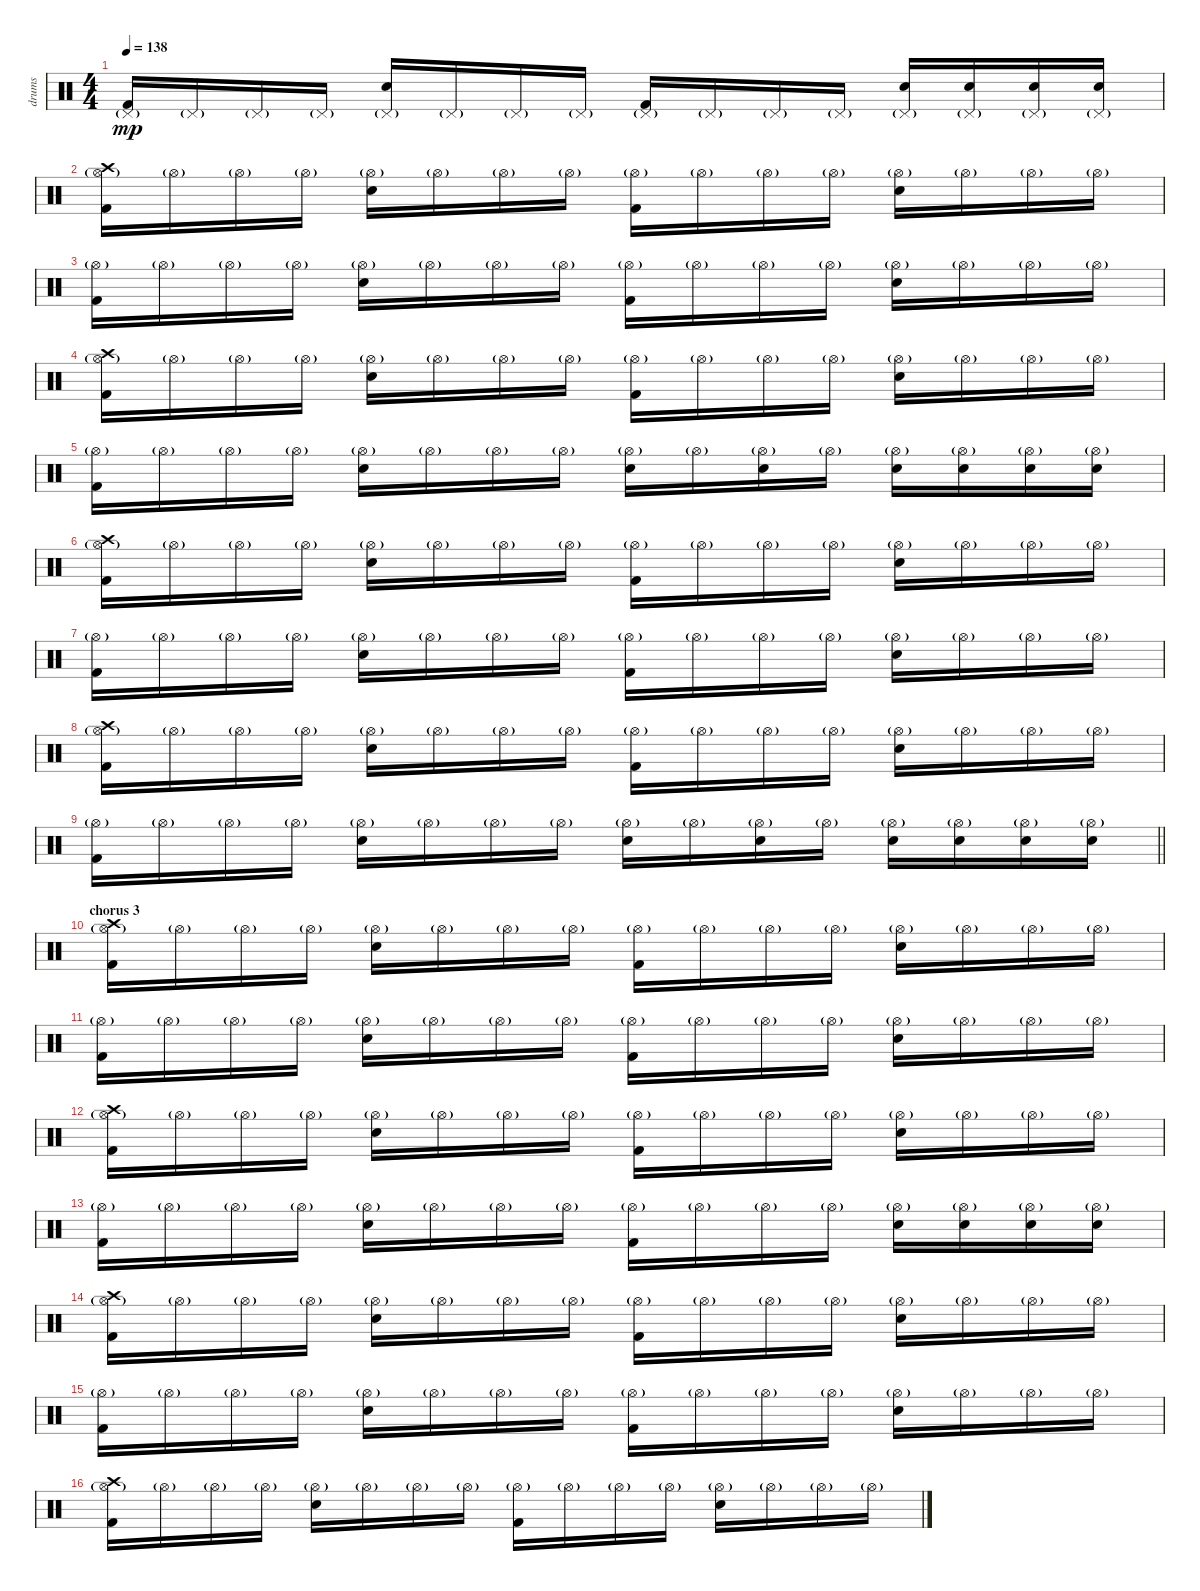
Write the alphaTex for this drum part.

\track ("drums" "drums") {instrument percussion}
\staff {score}
\articulation defaults
\ts (4 4)
\tempo 138
\clef neutral
\ks c
("Kick (hit) 2" "Pedal Hi-Hat (hit)"{g}).16{dy mp} "Pedal Hi-Hat (hit)"{g}.16 "Pedal Hi-Hat (hit)"{g}.16 "Pedal Hi-Hat (hit)"{g}.16 ("Electric Snare (hit)" "Pedal Hi-Hat (hit)"{g}).16 "Pedal Hi-Hat (hit)"{g}.16 "Pedal Hi-Hat (hit)"{g}.16 "Pedal Hi-Hat (hit)"{g}.16 ("Kick (hit) 2" "Pedal Hi-Hat (hit)"{g}).16 "Pedal Hi-Hat (hit)"{g}.16 "Pedal Hi-Hat (hit)"{g}.16 "Pedal Hi-Hat (hit)"{g}.16 ("Electric Snare (hit)" "Pedal Hi-Hat (hit)"{g}).16 ("Electric Snare (hit)" "Pedal Hi-Hat (hit)"{g}).16 ("Electric Snare (hit)" "Pedal Hi-Hat (hit)"{g}).16 ("Electric Snare (hit)" "Pedal Hi-Hat (hit)"{g}).16 |
("Kick (hit) 2" "Hi-Hat (open)"{g} "Crash high (hit)").16 "Hi-Hat (open)"{g}.16 "Hi-Hat (open)"{g}.16 "Hi-Hat (open)"{g}.16 ("Electric Snare (hit)" "Hi-Hat (open)"{g}).16 "Hi-Hat (open)"{g}.16 "Hi-Hat (open)"{g}.16 "Hi-Hat (open)"{g}.16 ("Kick (hit) 2" "Hi-Hat (open)"{g}).16 "Hi-Hat (open)"{g}.16 "Hi-Hat (open)"{g}.16 "Hi-Hat (open)"{g}.16 ("Electric Snare (hit)" "Hi-Hat (open)"{g}).16 "Hi-Hat (open)"{g}.16 "Hi-Hat (open)"{g}.16 "Hi-Hat (open)"{g}.16 |
("Kick (hit) 2" "Hi-Hat (open)"{g}).16 "Hi-Hat (open)"{g}.16 "Hi-Hat (open)"{g}.16 "Hi-Hat (open)"{g}.16 ("Electric Snare (hit)" "Hi-Hat (open)"{g}).16 "Hi-Hat (open)"{g}.16 "Hi-Hat (open)"{g}.16 "Hi-Hat (open)"{g}.16 ("Kick (hit) 2" "Hi-Hat (open)"{g}).16 "Hi-Hat (open)"{g}.16 "Hi-Hat (open)"{g}.16 "Hi-Hat (open)"{g}.16 ("Electric Snare (hit)" "Hi-Hat (open)"{g}).16 "Hi-Hat (open)"{g}.16 "Hi-Hat (open)"{g}.16 "Hi-Hat (open)"{g}.16 |
("Kick (hit) 2" "Hi-Hat (open)"{g} "Crash high (hit)").16 "Hi-Hat (open)"{g}.16 "Hi-Hat (open)"{g}.16 "Hi-Hat (open)"{g}.16 ("Electric Snare (hit)" "Hi-Hat (open)"{g}).16 "Hi-Hat (open)"{g}.16 "Hi-Hat (open)"{g}.16 "Hi-Hat (open)"{g}.16 ("Kick (hit) 2" "Hi-Hat (open)"{g}).16 "Hi-Hat (open)"{g}.16 "Hi-Hat (open)"{g}.16 "Hi-Hat (open)"{g}.16 ("Electric Snare (hit)" "Hi-Hat (open)"{g}).16 "Hi-Hat (open)"{g}.16 "Hi-Hat (open)"{g}.16 "Hi-Hat (open)"{g}.16 |
("Kick (hit) 2" "Hi-Hat (open)"{g}).16 "Hi-Hat (open)"{g}.16 "Hi-Hat (open)"{g}.16 "Hi-Hat (open)"{g}.16 ("Electric Snare (hit)" "Hi-Hat (open)"{g}).16 "Hi-Hat (open)"{g}.16 "Hi-Hat (open)"{g}.16 "Hi-Hat (open)"{g}.16 ("Electric Snare (hit)" "Hi-Hat (open)"{g}).16 "Hi-Hat (open)"{g}.16 ("Electric Snare (hit)" "Hi-Hat (open)"{g}).16 "Hi-Hat (open)"{g}.16 ("Electric Snare (hit)" "Hi-Hat (open)"{g}).16 ("Electric Snare (hit)" "Hi-Hat (open)"{g}).16 ("Electric Snare (hit)" "Hi-Hat (open)"{g}).16 ("Electric Snare (hit)" "Hi-Hat (open)"{g}).16 |
("Kick (hit) 2" "Hi-Hat (open)"{g} "Crash high (hit)").16 "Hi-Hat (open)"{g}.16 "Hi-Hat (open)"{g}.16 "Hi-Hat (open)"{g}.16 ("Electric Snare (hit)" "Hi-Hat (open)"{g}).16 "Hi-Hat (open)"{g}.16 "Hi-Hat (open)"{g}.16 "Hi-Hat (open)"{g}.16 ("Kick (hit) 2" "Hi-Hat (open)"{g}).16 "Hi-Hat (open)"{g}.16 "Hi-Hat (open)"{g}.16 "Hi-Hat (open)"{g}.16 ("Electric Snare (hit)" "Hi-Hat (open)"{g}).16 "Hi-Hat (open)"{g}.16 "Hi-Hat (open)"{g}.16 "Hi-Hat (open)"{g}.16 |
("Kick (hit) 2" "Hi-Hat (open)"{g}).16 "Hi-Hat (open)"{g}.16 "Hi-Hat (open)"{g}.16 "Hi-Hat (open)"{g}.16 ("Electric Snare (hit)" "Hi-Hat (open)"{g}).16 "Hi-Hat (open)"{g}.16 "Hi-Hat (open)"{g}.16 "Hi-Hat (open)"{g}.16 ("Kick (hit) 2" "Hi-Hat (open)"{g}).16 "Hi-Hat (open)"{g}.16 "Hi-Hat (open)"{g}.16 "Hi-Hat (open)"{g}.16 ("Electric Snare (hit)" "Hi-Hat (open)"{g}).16 "Hi-Hat (open)"{g}.16 "Hi-Hat (open)"{g}.16 "Hi-Hat (open)"{g}.16 |
("Kick (hit) 2" "Hi-Hat (open)"{g} "Crash high (hit)").16 "Hi-Hat (open)"{g}.16 "Hi-Hat (open)"{g}.16 "Hi-Hat (open)"{g}.16 ("Electric Snare (hit)" "Hi-Hat (open)"{g}).16 "Hi-Hat (open)"{g}.16 "Hi-Hat (open)"{g}.16 "Hi-Hat (open)"{g}.16 ("Kick (hit) 2" "Hi-Hat (open)"{g}).16 "Hi-Hat (open)"{g}.16 "Hi-Hat (open)"{g}.16 "Hi-Hat (open)"{g}.16 ("Electric Snare (hit)" "Hi-Hat (open)"{g}).16 "Hi-Hat (open)"{g}.16 "Hi-Hat (open)"{g}.16 "Hi-Hat (open)"{g}.16 |
\barLineRight lightlight
("Kick (hit) 2" "Hi-Hat (open)"{g}).16 "Hi-Hat (open)"{g}.16 "Hi-Hat (open)"{g}.16 "Hi-Hat (open)"{g}.16 ("Electric Snare (hit)" "Hi-Hat (open)"{g}).16 "Hi-Hat (open)"{g}.16 "Hi-Hat (open)"{g}.16 "Hi-Hat (open)"{g}.16 ("Electric Snare (hit)" "Hi-Hat (open)"{g}).16 "Hi-Hat (open)"{g}.16 ("Electric Snare (hit)" "Hi-Hat (open)"{g}).16 "Hi-Hat (open)"{g}.16 ("Electric Snare (hit)" "Hi-Hat (open)"{g}).16 ("Electric Snare (hit)" "Hi-Hat (open)"{g}).16 ("Electric Snare (hit)" "Hi-Hat (open)"{g}).16 ("Electric Snare (hit)" "Hi-Hat (open)"{g}).16 |
\section ("" "chorus 3")
("Kick (hit) 2" "Hi-Hat (open)"{g} "Crash high (hit)").16 "Hi-Hat (open)"{g}.16 "Hi-Hat (open)"{g}.16 "Hi-Hat (open)"{g}.16 ("Electric Snare (hit)" "Hi-Hat (open)"{g}).16 "Hi-Hat (open)"{g}.16 "Hi-Hat (open)"{g}.16 "Hi-Hat (open)"{g}.16 ("Kick (hit) 2" "Hi-Hat (open)"{g}).16 "Hi-Hat (open)"{g}.16 "Hi-Hat (open)"{g}.16 "Hi-Hat (open)"{g}.16 ("Electric Snare (hit)" "Hi-Hat (open)"{g}).16 "Hi-Hat (open)"{g}.16 "Hi-Hat (open)"{g}.16 "Hi-Hat (open)"{g}.16 |
("Kick (hit) 2" "Hi-Hat (open)"{g}).16 "Hi-Hat (open)"{g}.16 "Hi-Hat (open)"{g}.16 "Hi-Hat (open)"{g}.16 ("Electric Snare (hit)" "Hi-Hat (open)"{g}).16 "Hi-Hat (open)"{g}.16 "Hi-Hat (open)"{g}.16 "Hi-Hat (open)"{g}.16 ("Kick (hit) 2" "Hi-Hat (open)"{g}).16 "Hi-Hat (open)"{g}.16 "Hi-Hat (open)"{g}.16 "Hi-Hat (open)"{g}.16 ("Electric Snare (hit)" "Hi-Hat (open)"{g}).16 "Hi-Hat (open)"{g}.16 "Hi-Hat (open)"{g}.16 "Hi-Hat (open)"{g}.16 |
("Kick (hit) 2" "Hi-Hat (open)"{g} "Crash high (hit)").16 "Hi-Hat (open)"{g}.16 "Hi-Hat (open)"{g}.16 "Hi-Hat (open)"{g}.16 ("Electric Snare (hit)" "Hi-Hat (open)"{g}).16 "Hi-Hat (open)"{g}.16 "Hi-Hat (open)"{g}.16 "Hi-Hat (open)"{g}.16 ("Kick (hit) 2" "Hi-Hat (open)"{g}).16 "Hi-Hat (open)"{g}.16 "Hi-Hat (open)"{g}.16 "Hi-Hat (open)"{g}.16 ("Electric Snare (hit)" "Hi-Hat (open)"{g}).16 "Hi-Hat (open)"{g}.16 "Hi-Hat (open)"{g}.16 "Hi-Hat (open)"{g}.16 |
("Kick (hit) 2" "Hi-Hat (open)"{g}).16 "Hi-Hat (open)"{g}.16 "Hi-Hat (open)"{g}.16 "Hi-Hat (open)"{g}.16 ("Electric Snare (hit)" "Hi-Hat (open)"{g}).16 "Hi-Hat (open)"{g}.16 "Hi-Hat (open)"{g}.16 "Hi-Hat (open)"{g}.16 ("Kick (hit) 2" "Hi-Hat (open)"{g}).16 "Hi-Hat (open)"{g}.16 "Hi-Hat (open)"{g}.16 "Hi-Hat (open)"{g}.16 ("Electric Snare (hit)" "Hi-Hat (open)"{g}).16 ("Electric Snare (hit)" "Hi-Hat (open)"{g}).16 ("Electric Snare (hit)" "Hi-Hat (open)"{g}).16 ("Electric Snare (hit)" "Hi-Hat (open)"{g}).16 |
("Kick (hit) 2" "Hi-Hat (open)"{g} "Crash high (hit)").16 "Hi-Hat (open)"{g}.16 "Hi-Hat (open)"{g}.16 "Hi-Hat (open)"{g}.16 ("Electric Snare (hit)" "Hi-Hat (open)"{g}).16 "Hi-Hat (open)"{g}.16 "Hi-Hat (open)"{g}.16 "Hi-Hat (open)"{g}.16 ("Kick (hit) 2" "Hi-Hat (open)"{g}).16 "Hi-Hat (open)"{g}.16 "Hi-Hat (open)"{g}.16 "Hi-Hat (open)"{g}.16 ("Electric Snare (hit)" "Hi-Hat (open)"{g}).16 "Hi-Hat (open)"{g}.16 "Hi-Hat (open)"{g}.16 "Hi-Hat (open)"{g}.16 |
("Kick (hit) 2" "Hi-Hat (open)"{g}).16 "Hi-Hat (open)"{g}.16 "Hi-Hat (open)"{g}.16 "Hi-Hat (open)"{g}.16 ("Electric Snare (hit)" "Hi-Hat (open)"{g}).16 "Hi-Hat (open)"{g}.16 "Hi-Hat (open)"{g}.16 "Hi-Hat (open)"{g}.16 ("Kick (hit) 2" "Hi-Hat (open)"{g}).16 "Hi-Hat (open)"{g}.16 "Hi-Hat (open)"{g}.16 "Hi-Hat (open)"{g}.16 ("Electric Snare (hit)" "Hi-Hat (open)"{g}).16 "Hi-Hat (open)"{g}.16 "Hi-Hat (open)"{g}.16 "Hi-Hat (open)"{g}.16 |
("Kick (hit) 2" "Hi-Hat (open)"{g} "Crash high (hit)").16 "Hi-Hat (open)"{g}.16 "Hi-Hat (open)"{g}.16 "Hi-Hat (open)"{g}.16 ("Electric Snare (hit)" "Hi-Hat (open)"{g}).16 "Hi-Hat (open)"{g}.16 "Hi-Hat (open)"{g}.16 "Hi-Hat (open)"{g}.16 ("Kick (hit) 2" "Hi-Hat (open)"{g}).16 "Hi-Hat (open)"{g}.16 "Hi-Hat (open)"{g}.16 "Hi-Hat (open)"{g}.16 ("Electric Snare (hit)" "Hi-Hat (open)"{g}).16 "Hi-Hat (open)"{g}.16 "Hi-Hat (open)"{g}.16 "Hi-Hat (open)"{g}.16
